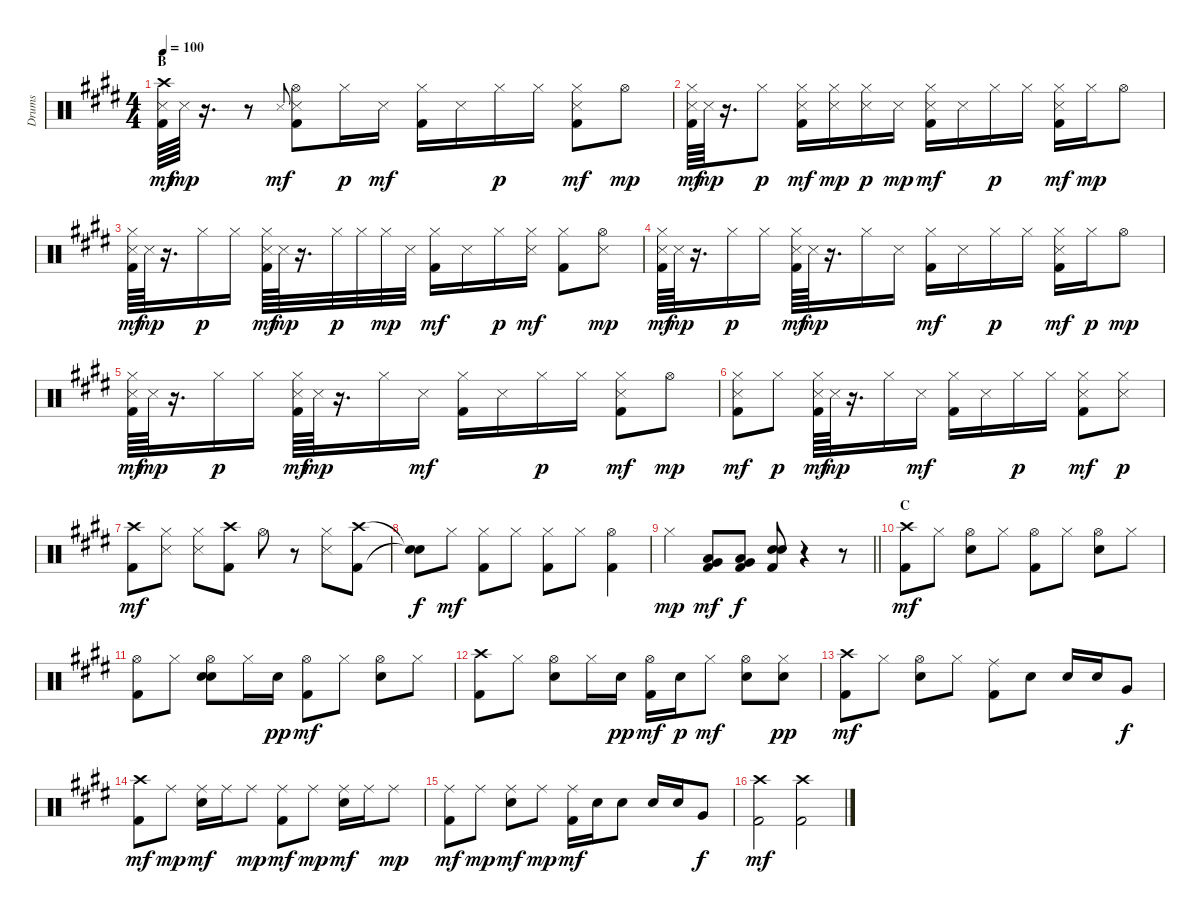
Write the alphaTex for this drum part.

\track ("Drums" "Drums") {instrument percussion}
\staff {score}
\articulation defaults
\ts (4 4)
\section ("" "B")
\tempo 100
\clef neutral
\ks e
("Crash high (hit)" "Snare (side stick) 3" "Kick (hit) 2").64{dy mf} "Snare (side stick) 3".64{dy mp} r.16{d} r.8 "Snare (side stick) 3".8{gr onbeat dy mf} ("Hi-Hat (open)" "Snare (side stick) 3" "Kick (hit) 2").8 "Hi-Hat (closed)".16{dy p} "Snare (side stick) 3".16{dy mf} ("Hi-Hat (closed)" "Kick (hit) 2").16 "Snare (side stick) 3".16 "Hi-Hat (closed)".16{dy p} "Hi-Hat (closed)".16 ("Hi-Hat (closed)" "Snare (side stick) 3" "Kick (hit) 2").8{dy mf} "Hi-Hat (open)".8{dy mp} |
("Hi-Hat (closed)" "Snare (side stick) 3" "Kick (hit) 2").64{dy mf} "Snare (side stick) 3".64{dy mp} r.16{d} "Hi-Hat (closed)".8{dy p} ("Hi-Hat (closed)" "Snare (side stick) 3" "Kick (hit) 2").16{dy mf} ("Hi-Hat (closed)" "Snare (side stick) 3").16{dy mp} ("Hi-Hat (closed)" "Snare (side stick) 3").16{dy p} "Snare (side stick) 3".16{dy mp} ("Hi-Hat (closed)" "Snare (side stick) 3" "Kick (hit) 2").16{dy mf} "Snare (side stick) 3".16 "Hi-Hat (closed)".16{dy p} "Hi-Hat (closed)".16 ("Hi-Hat (closed)" "Snare (side stick) 3" "Kick (hit) 2").16{dy mf} "Hi-Hat (closed)".16{dy mp} "Hi-Hat (open)".8 |
("Hi-Hat (closed)" "Snare (side stick) 3" "Kick (hit) 2").64{dy mf} "Snare (side stick) 3".64{dy mp} r.16{d} "Hi-Hat (closed)".16{dy p} "Hi-Hat (closed)".16 ("Hi-Hat (closed)" "Snare (side stick) 3" "Kick (hit) 2").64{dy mf} "Snare (side stick) 3".64{dy mp} r.16{d} "Hi-Hat (closed)".32{dy p} "Hi-Hat (closed)".32 "Hi-Hat (closed)".32{dy mp} "Snare (side stick) 3".32 ("Hi-Hat (closed)" "Kick (hit) 2").16{dy mf} "Snare (side stick) 3".16 "Hi-Hat (closed)".16{dy p} ("Hi-Hat (closed)" "Snare (side stick) 3").16{dy mf} ("Hi-Hat (closed)" "Kick (hit) 2").8 ("Hi-Hat (open)" "Snare (side stick) 3").8{dy mp} |
("Hi-Hat (closed)" "Snare (side stick) 3" "Kick (hit) 2").64{dy mf} "Snare (side stick) 3".64{dy mp} r.16{d} "Hi-Hat (closed)".16{dy p} "Hi-Hat (closed)".16 ("Hi-Hat (closed)" "Snare (side stick) 3" "Kick (hit) 2").64{dy mf} "Snare (side stick) 3".64{dy mp} r.16{d} "Hi-Hat (closed)".16 "Snare (side stick) 3".16 ("Hi-Hat (closed)" "Kick (hit) 2").16{dy mf} "Snare (side stick) 3".16 "Hi-Hat (closed)".16{dy p} "Hi-Hat (closed)".16 ("Hi-Hat (closed)" "Snare (side stick) 3" "Kick (hit) 2").16{dy mf} "Hi-Hat (closed)".16{dy p} "Hi-Hat (open)".8{dy mp} |
("Hi-Hat (closed)" "Snare (side stick) 3" "Kick (hit) 2").64{dy mf} "Snare (side stick) 3".64{dy mp} r.16{d} "Hi-Hat (closed)".16{dy p} "Hi-Hat (closed)".16 ("Hi-Hat (closed)" "Snare (side stick) 3" "Kick (hit) 2").64{dy mf} "Snare (side stick) 3".64{dy mp} r.16{d} "Hi-Hat (closed)".16 "Snare (side stick) 3".16{dy mf} ("Hi-Hat (closed)" "Kick (hit) 2").16 "Snare (side stick) 3".16 "Hi-Hat (closed)".16{dy p} "Hi-Hat (closed)".16 ("Hi-Hat (closed)" "Snare (side stick) 3" "Kick (hit) 2").8{dy mf} "Hi-Hat (open)".8{dy mp} |
("Hi-Hat (closed)" "Snare (side stick) 3" "Kick (hit) 2").8{dy mf} "Hi-Hat (closed)".8{dy p} ("Hi-Hat (closed)" "Snare (side stick) 3" "Kick (hit) 2").64{dy mf} "Snare (side stick) 3".64{dy mp} r.16{d} "Hi-Hat (closed)".16 "Snare (side stick) 3".16{dy mf} ("Hi-Hat (closed)" "Kick (hit) 2").16 "Snare (side stick) 3".16 "Hi-Hat (closed)".16{dy p} "Hi-Hat (closed)".16 ("Hi-Hat (closed)" "Snare (side stick) 3" "Kick (hit) 2").8{dy mf} ("Hi-Hat (closed)" "Snare (side stick) 3").8{dy p} |
("Crash high (hit)" "Kick (hit) 2").8{dy mf} ("Hi-Hat (closed)" "Snare (side stick) 3").8 ("Hi-Hat (closed)" "Snare (side stick) 3").8 ("Crash high (hit)" "Kick (hit) 2").8 "Hi-Hat (open)".8 r.8 ("Hi-Hat (closed)" "Snare (side stick) 3").8 ("Crash high (hit)" "Kick (hit) 2").8 |
("Snare (hit)"{t} "Snare (hit)"{t}).8{dy f} "Hi-Hat (closed)".8{dy mf} ("Hi-Hat (closed)" "Kick (hit) 2").8 "Hi-Hat (closed)".8 ("Hi-Hat (closed)" "Kick (hit) 2").8 "Hi-Hat (closed)".8 ("Hi-Hat (open)" "Kick (hit) 2").4 |
\barLineRight lightlight "Hi-Hat (closed)".4{dy mp}
("Low Tom (hit)" "Very Low Tom (hit)" "Kick (hit) 2").8{dy mf} ("Low Tom (hit)" "Very Low Tom (hit)" "Kick (hit) 2").8{dy f} ("Snare (hit) 2" "Snare (hit) 2" "Kick (hit) 2").8 r.4 r.8 |
\section ("" "C")
("Crash high (hit)" "Kick (hit) 2").8{dy mf} "Hi-Hat (closed)".8 ("Hi-Hat (open)" "Snare (hit) 2").8 "Hi-Hat (closed)".8 ("Hi-Hat (open)" "Kick (hit) 2").8 "Hi-Hat (closed)".8 ("Hi-Hat (open)" "Snare (hit) 2").8 "Hi-Hat (closed)".8 |
("Hi-Hat (open)" "Kick (hit) 2").8 "Hi-Hat (closed)".8 ("Hi-Hat (open)" "Snare (hit) 2" "Hand Clap (hit)").8 "Hi-Hat (closed)".16 "Snare (hit) 2".16{dy pp} ("Hi-Hat (open)" "Kick (hit) 2").8{dy mf} "Hi-Hat (closed)".8 ("Hi-Hat (open)" "Snare (hit) 2").8 "Hi-Hat (closed)".8 |
("Crash high (hit)" "Kick (hit) 2").8 "Hi-Hat (closed)".8 ("Hi-Hat (open)" "Snare (hit) 2").8 "Hi-Hat (closed)".16 "Snare (hit) 2".16{dy pp} ("Hi-Hat (open)" "Kick (hit) 2").16{dy mf} "Snare (hit) 2".16{dy p} "Hi-Hat (closed)".8{dy mf} ("Hi-Hat (open)" "Snare (hit) 2").8 ("Hi-Hat (closed)" "Snare (hit) 2").8{dy pp} |
("Crash high (hit)" "Kick (hit) 2").8{dy mf} "Hi-Hat (closed)".8 ("Hi-Hat (open)" "Snare (hit) 2").8 "Hi-Hat (closed)".8 ("Ride (middle)" "Kick (hit) 2").8 "Snare (hit) 2".8 "Snare (hit) 2".16 "Snare (hit) 2".16 "Very Low Tom (hit)".8{dy f} |
("Crash high (hit)" "Kick (hit) 2").8{dy mf} "Ride (middle)".8{dy mp} ("Ride (middle)" "Snare (hit) 2").16{dy mf} "Ride (middle)".16 "Ride (middle)".8{dy mp} ("Ride (middle)" "Kick (hit) 2").8{dy mf} "Ride (middle)".8{dy mp} ("Ride (middle)" "Snare (hit) 2").16{dy mf} "Ride (middle)".16 "Ride (middle)".8{dy mp} |
("Ride (middle)" "Kick (hit) 2").8{dy mf} "Ride (middle)".8{dy mp} ("Ride (middle)" "Snare (hit) 2").8{dy mf} "Ride (middle)".8{dy mp} ("Ride (middle)" "Kick (hit) 2").16{dy mf} "Snare (hit) 2".16 "Snare (hit) 2".8 "Snare (hit) 2".16 "Snare (hit) 2".16 "Very Low Tom (hit)".8{dy f} |
("Crash high (hit)" "Kick (hit) 2").2{dy mf} ("Crash high (hit)" "Kick (hit) 2").2
